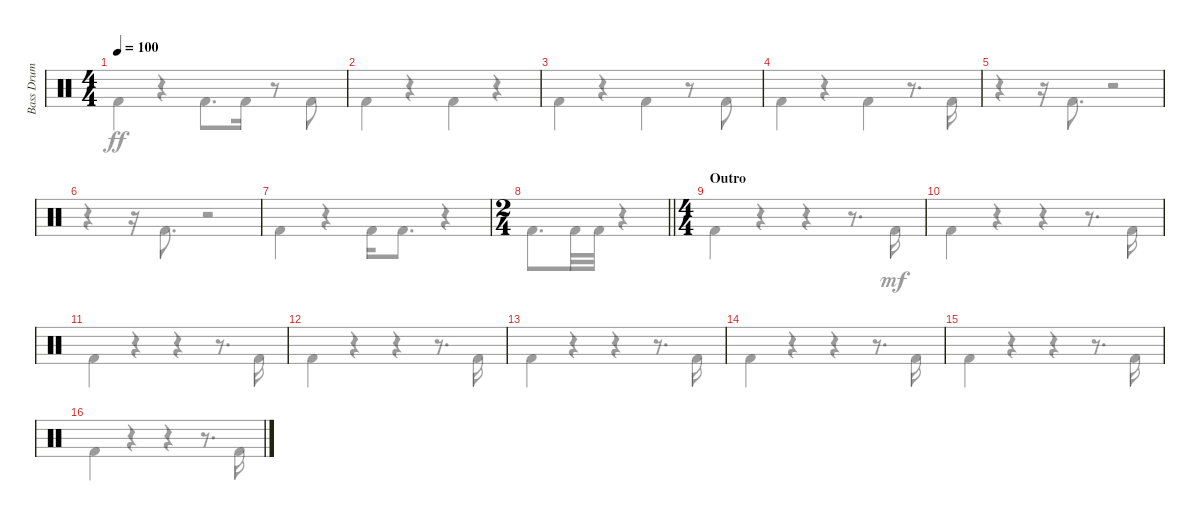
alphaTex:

\track ("Bass Drum" "Bass Drum") {instrument percussion}
\staff {score}
\articulation defaults
\voice
\ts (4 4)
\tempo 100
\clef neutral
\ks c
|
|
|
|
|
\ks aminor
|
|
\ts (2 4)
\barLineRight lightlight
|
\ts (4 4)
\section ("" "Outro")
|
|
|
|
|
|
|
\voice
\clef neutral
\ks c "Kick (hit) 2".4{dy ff}
r.4 "Kick (hit) 2".8{d} "Kick (hit) 2".16 r.8 "Kick (hit) 2".8 |
"Kick (hit) 2".4 r.4 "Kick (hit) 2".4 r.4 |
"Kick (hit) 2".4 r.4 "Kick (hit) 2".4 r.8 "Kick (hit) 2".8 |
"Kick (hit) 2".4 r.4 "Kick (hit) 2".4 r.8{d} "Kick (hit) 2".16 |
r.4 r.16 "Kick (hit) 2".8{d} r.2 |
\ks aminor
r.4 r.16 "Kick (hit) 2".8{d} r.2 |
"Kick (hit) 2".4 r.4 "Kick (hit) 2".16 "Kick (hit) 2".8{d} r.4 |
\barLineRight lightlight "Kick (hit) 2".8{d} "Kick (hit) 2".32 "Kick (hit) 2".32
r.4 |
"Kick (hit) 2".4 r.4 r.4 r.8{d} "Kick (hit) 2".16{dy mf} |
"Kick (hit) 2".4 r.4 r.4 r.8{d} "Kick (hit) 2".16 |
"Kick (hit) 2".4 r.4 r.4 r.8{d} "Kick (hit) 2".16 |
"Kick (hit) 2".4 r.4 r.4 r.8{d} "Kick (hit) 2".16 |
"Kick (hit) 2".4 r.4 r.4 r.8{d} "Kick (hit) 2".16 |
"Kick (hit) 2".4 r.4 r.4 r.8{d} "Kick (hit) 2".16 |
"Kick (hit) 2".4 r.4 r.4 r.8{d} "Kick (hit) 2".16 |
"Kick (hit) 2".4 r.4 r.4 r.8{d} "Kick (hit) 2".16
